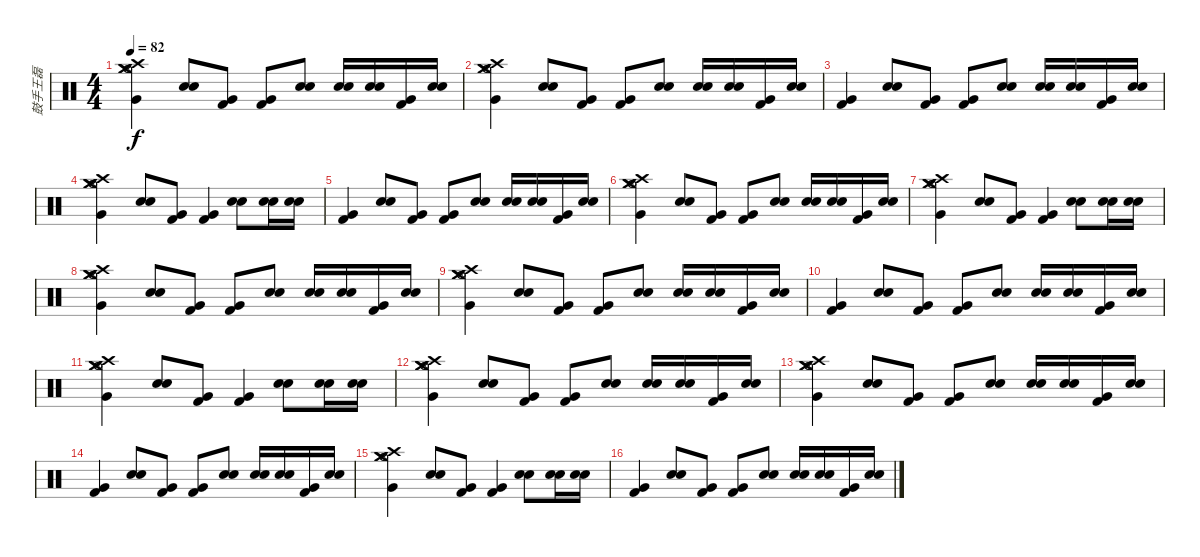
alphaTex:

\track ("鼓手王磊" "鼓手王磊") {instrument percussion}
\staff {score}
\articulation defaults
\ts (4 4)
\tempo 82
\clef neutral
\ks c
("Crash medium (hit)" "Crash medium (hit)" "Very Low Tom (hit)" "Crash high (hit)" "Hi-Hat (open)" "Hi-Hat (open)").4{dy f} ("Electric Snare (hit)" "Electric Snare (hit)").8 ("Very Low Tom (hit)" "Kick (hit) 2").8 ("Very Low Tom (hit)" "Kick (hit) 2").8 ("Electric Snare (hit)" "Electric Snare (hit)").8 ("Electric Snare (hit)" "Electric Snare (hit)").16 ("Electric Snare (hit)" "Electric Snare (hit)").16 ("Very Low Tom (hit)" "Kick (hit) 2").16 ("Electric Snare (hit)" "Electric Snare (hit)").16 |
("Crash medium (hit)" "Crash medium (hit)" "Very Low Tom (hit)" "Crash high (hit)" "Hi-Hat (open)" "Hi-Hat (open)").4 ("Electric Snare (hit)" "Electric Snare (hit)").8 ("Very Low Tom (hit)" "Kick (hit) 2").8 ("Very Low Tom (hit)" "Kick (hit) 2").8 ("Electric Snare (hit)" "Electric Snare (hit)").8 ("Electric Snare (hit)" "Electric Snare (hit)").16 ("Electric Snare (hit)" "Electric Snare (hit)").16 ("Very Low Tom (hit)" "Kick (hit) 2").16 ("Electric Snare (hit)" "Electric Snare (hit)").16 |
("Very Low Tom (hit)" "Kick (hit) 2").4 ("Electric Snare (hit)" "Electric Snare (hit)").8 ("Very Low Tom (hit)" "Kick (hit) 2").8 ("Very Low Tom (hit)" "Kick (hit) 2").8 ("Electric Snare (hit)" "Electric Snare (hit)").8 ("Electric Snare (hit)" "Electric Snare (hit)").16 ("Electric Snare (hit)" "Electric Snare (hit)").16 ("Very Low Tom (hit)" "Kick (hit) 2").16 ("Electric Snare (hit)" "Electric Snare (hit)").16 |
("Crash medium (hit)" "Crash medium (hit)" "Very Low Tom (hit)" "Crash high (hit)" "Hi-Hat (open)" "Hi-Hat (open)").4 ("Electric Snare (hit)" "Electric Snare (hit)").8 ("Very Low Tom (hit)" "Kick (hit) 2").8 ("Very Low Tom (hit)" "Kick (hit) 2").4 ("Electric Snare (hit)" "Electric Snare (hit)").8 ("Electric Snare (hit)" "Electric Snare (hit)").16 ("Electric Snare (hit)" "Electric Snare (hit)").16 |
("Very Low Tom (hit)" "Kick (hit) 2").4 ("Electric Snare (hit)" "Electric Snare (hit)").8 ("Very Low Tom (hit)" "Kick (hit) 2").8 ("Very Low Tom (hit)" "Kick (hit) 2").8 ("Electric Snare (hit)" "Electric Snare (hit)").8 ("Electric Snare (hit)" "Electric Snare (hit)").16 ("Electric Snare (hit)" "Electric Snare (hit)").16 ("Very Low Tom (hit)" "Kick (hit) 2").16 ("Electric Snare (hit)" "Electric Snare (hit)").16 |
("Crash medium (hit)" "Crash medium (hit)" "Very Low Tom (hit)" "Crash high (hit)" "Hi-Hat (open)" "Hi-Hat (open)").4 ("Electric Snare (hit)" "Electric Snare (hit)").8 ("Very Low Tom (hit)" "Kick (hit) 2").8 ("Very Low Tom (hit)" "Kick (hit) 2").8 ("Electric Snare (hit)" "Electric Snare (hit)").8 ("Electric Snare (hit)" "Electric Snare (hit)").16 ("Electric Snare (hit)" "Electric Snare (hit)").16 ("Very Low Tom (hit)" "Kick (hit) 2").16 ("Electric Snare (hit)" "Electric Snare (hit)").16 |
("Crash medium (hit)" "Crash medium (hit)" "Very Low Tom (hit)" "Crash high (hit)" "Hi-Hat (open)" "Hi-Hat (open)").4 ("Electric Snare (hit)" "Electric Snare (hit)").8 ("Very Low Tom (hit)" "Kick (hit) 2").8 ("Very Low Tom (hit)" "Kick (hit) 2").4 ("Electric Snare (hit)" "Electric Snare (hit)").8 ("Electric Snare (hit)" "Electric Snare (hit)").16 ("Electric Snare (hit)" "Electric Snare (hit)").16 |
("Crash medium (hit)" "Crash medium (hit)" "Very Low Tom (hit)" "Crash high (hit)" "Hi-Hat (open)" "Hi-Hat (open)").4 ("Electric Snare (hit)" "Electric Snare (hit)").8 ("Very Low Tom (hit)" "Kick (hit) 2").8 ("Very Low Tom (hit)" "Kick (hit) 2").8 ("Electric Snare (hit)" "Electric Snare (hit)").8 ("Electric Snare (hit)" "Electric Snare (hit)").16 ("Electric Snare (hit)" "Electric Snare (hit)").16 ("Very Low Tom (hit)" "Kick (hit) 2").16 ("Electric Snare (hit)" "Electric Snare (hit)").16 |
("Crash medium (hit)" "Crash medium (hit)" "Very Low Tom (hit)" "Crash high (hit)" "Hi-Hat (open)" "Hi-Hat (open)").4 ("Electric Snare (hit)" "Electric Snare (hit)").8 ("Very Low Tom (hit)" "Kick (hit) 2").8 ("Very Low Tom (hit)" "Kick (hit) 2").8 ("Electric Snare (hit)" "Electric Snare (hit)").8 ("Electric Snare (hit)" "Electric Snare (hit)").16 ("Electric Snare (hit)" "Electric Snare (hit)").16 ("Very Low Tom (hit)" "Kick (hit) 2").16 ("Electric Snare (hit)" "Electric Snare (hit)").16 |
("Very Low Tom (hit)" "Kick (hit) 2").4 ("Electric Snare (hit)" "Electric Snare (hit)").8 ("Very Low Tom (hit)" "Kick (hit) 2").8 ("Very Low Tom (hit)" "Kick (hit) 2").8 ("Electric Snare (hit)" "Electric Snare (hit)").8 ("Electric Snare (hit)" "Electric Snare (hit)").16 ("Electric Snare (hit)" "Electric Snare (hit)").16 ("Very Low Tom (hit)" "Kick (hit) 2").16 ("Electric Snare (hit)" "Electric Snare (hit)").16 |
("Crash medium (hit)" "Crash medium (hit)" "Very Low Tom (hit)" "Crash high (hit)" "Hi-Hat (open)" "Hi-Hat (open)").4 ("Electric Snare (hit)" "Electric Snare (hit)").8 ("Very Low Tom (hit)" "Kick (hit) 2").8 ("Very Low Tom (hit)" "Kick (hit) 2").4 ("Electric Snare (hit)" "Electric Snare (hit)").8 ("Electric Snare (hit)" "Electric Snare (hit)").16 ("Electric Snare (hit)" "Electric Snare (hit)").16 |
("Crash medium (hit)" "Crash medium (hit)" "Very Low Tom (hit)" "Crash high (hit)" "Hi-Hat (open)" "Hi-Hat (open)").4 ("Electric Snare (hit)" "Electric Snare (hit)").8 ("Very Low Tom (hit)" "Kick (hit) 2").8 ("Very Low Tom (hit)" "Kick (hit) 2").8 ("Electric Snare (hit)" "Electric Snare (hit)").8 ("Electric Snare (hit)" "Electric Snare (hit)").16 ("Electric Snare (hit)" "Electric Snare (hit)").16 ("Very Low Tom (hit)" "Kick (hit) 2").16 ("Electric Snare (hit)" "Electric Snare (hit)").16 |
("Crash medium (hit)" "Crash medium (hit)" "Very Low Tom (hit)" "Crash high (hit)" "Hi-Hat (open)" "Hi-Hat (open)").4 ("Electric Snare (hit)" "Electric Snare (hit)").8 ("Very Low Tom (hit)" "Kick (hit) 2").8 ("Very Low Tom (hit)" "Kick (hit) 2").8 ("Electric Snare (hit)" "Electric Snare (hit)").8 ("Electric Snare (hit)" "Electric Snare (hit)").16 ("Electric Snare (hit)" "Electric Snare (hit)").16 ("Very Low Tom (hit)" "Kick (hit) 2").16 ("Electric Snare (hit)" "Electric Snare (hit)").16 |
("Very Low Tom (hit)" "Kick (hit) 2").4 ("Electric Snare (hit)" "Electric Snare (hit)").8 ("Very Low Tom (hit)" "Kick (hit) 2").8 ("Very Low Tom (hit)" "Kick (hit) 2").8 ("Electric Snare (hit)" "Electric Snare (hit)").8 ("Electric Snare (hit)" "Electric Snare (hit)").16 ("Electric Snare (hit)" "Electric Snare (hit)").16 ("Very Low Tom (hit)" "Kick (hit) 2").16 ("Electric Snare (hit)" "Electric Snare (hit)").16 |
("Crash medium (hit)" "Crash medium (hit)" "Very Low Tom (hit)" "Crash high (hit)" "Hi-Hat (open)" "Hi-Hat (open)").4 ("Electric Snare (hit)" "Electric Snare (hit)").8 ("Very Low Tom (hit)" "Kick (hit) 2").8 ("Very Low Tom (hit)" "Kick (hit) 2").4 ("Electric Snare (hit)" "Electric Snare (hit)").8 ("Electric Snare (hit)" "Electric Snare (hit)").16 ("Electric Snare (hit)" "Electric Snare (hit)").16 |
("Very Low Tom (hit)" "Kick (hit) 2").4 ("Electric Snare (hit)" "Electric Snare (hit)").8 ("Very Low Tom (hit)" "Kick (hit) 2").8 ("Very Low Tom (hit)" "Kick (hit) 2").8 ("Electric Snare (hit)" "Electric Snare (hit)").8 ("Electric Snare (hit)" "Electric Snare (hit)").16 ("Electric Snare (hit)" "Electric Snare (hit)").16 ("Very Low Tom (hit)" "Kick (hit) 2").16 ("Electric Snare (hit)" "Electric Snare (hit)").16
